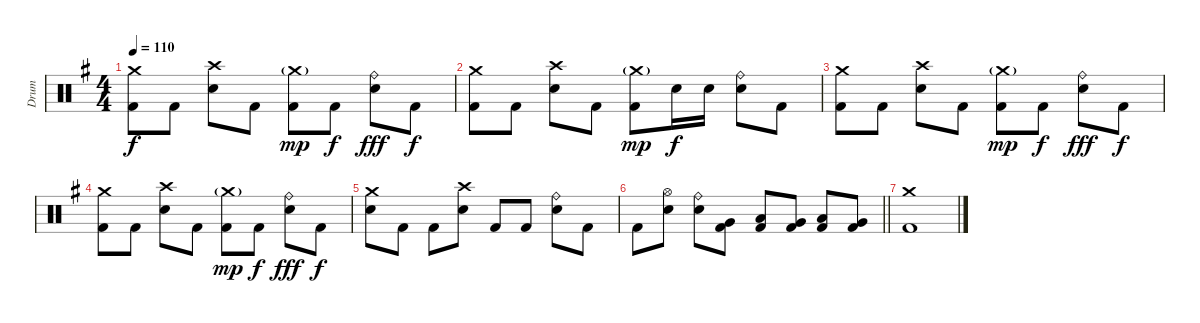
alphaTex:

\track ("Drum" "Drum") {instrument percussion}
\staff {score}
\articulation defaults
\ts (4 4)
\tempo 110
\clef neutral
\ks g
("Crash medium (hit)" "Kick (hit) 2").8{dy f} "Kick (hit) 2".8 ("Crash high (hit)" "Electric Snare (hit)").8 "Kick (hit) 2".8 ("Crash medium (hit)"{g} "Kick (hit) 2").8{dy mp} "Kick (hit) 2".8{dy f} ("Ride (bell)" "Electric Snare (hit)").8{dy fff} "Kick (hit) 2".8{dy f} |
("Crash medium (hit)" "Kick (hit) 2").8 "Kick (hit) 2".8 ("Crash high (hit)" "Electric Snare (hit)").8 "Kick (hit) 2".8 ("Crash medium (hit)"{g} "Kick (hit) 2").8{dy mp} "Electric Snare (hit)".16{dy f} "Electric Snare (hit)".16 ("Ride (bell)" "Electric Snare (hit)").8 "Kick (hit) 2".8 |
("Crash medium (hit)" "Kick (hit) 2").8 "Kick (hit) 2".8 ("Crash high (hit)" "Electric Snare (hit)").8 "Kick (hit) 2".8 ("Crash medium (hit)"{g} "Kick (hit) 2").8{dy mp} "Kick (hit) 2".8{dy f} ("Ride (bell)" "Electric Snare (hit)").8{dy fff} "Kick (hit) 2".8{dy f} |
("Crash medium (hit)" "Kick (hit) 2").8 "Kick (hit) 2".8 ("Crash high (hit)" "Electric Snare (hit)").8 "Kick (hit) 2".8 ("Crash medium (hit)"{g} "Kick (hit) 2").8{dy mp} "Kick (hit) 2".8{dy f} ("Ride (bell)" "Electric Snare (hit)").8{dy fff} "Kick (hit) 2".8{dy f} |
("Crash medium (hit)" "Electric Snare (hit)").8 "Kick (hit) 2".8 "Kick (hit) 2".8 ("Crash high (hit)" "Electric Snare (hit)").8 "Kick (hit) 2".8 "Kick (hit) 2".8 ("Ride (bell)" "Electric Snare (hit)").8 "Kick (hit) 2".8 |
\barLineRight lightlight "Kick (hit) 2".8
("Hi-Hat (open)" "Electric Snare (hit)").8 ("Ride (bell)" "Electric Snare (hit)").8 ("Very Low Tom (hit)" "Kick (hit) 2").8 ("Low Floor Tom (hit)" "Kick (hit) 2").8 ("Very Low Tom (hit)" "Kick (hit) 2").8 ("Low Floor Tom (hit)" "Kick (hit) 2").8 ("Very Low Tom (hit)" "Kick (hit) 2").8 |
("Crash medium (hit)" "Kick (hit) 2").1
